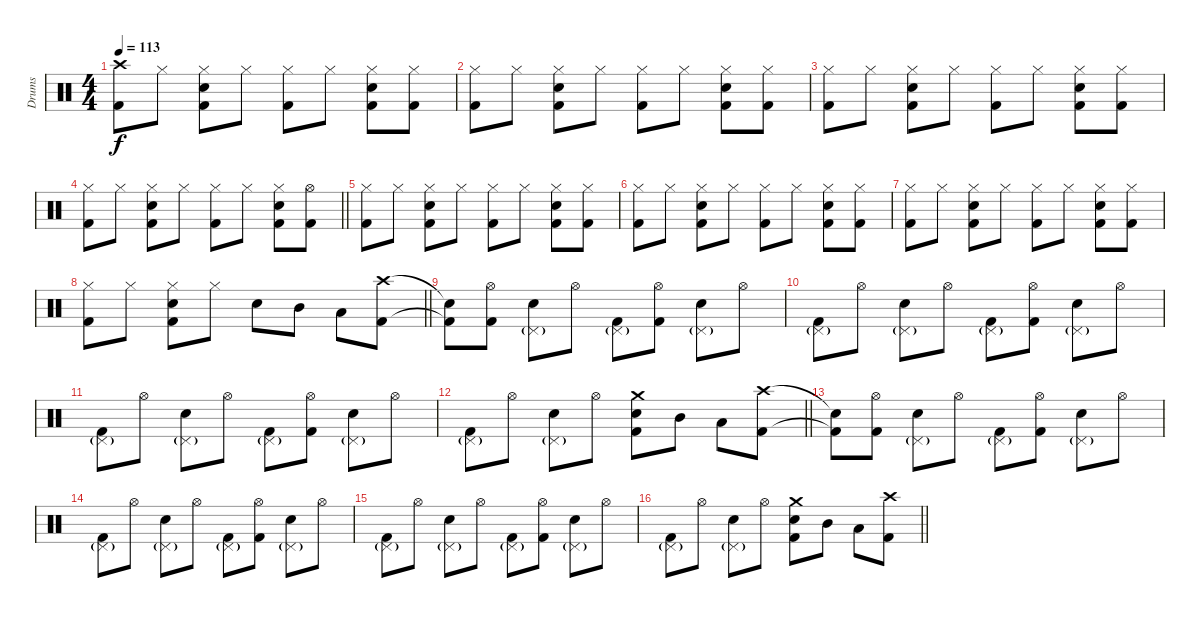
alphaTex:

\track ("Drums" "Drums") {instrument percussion}
\staff {score}
\articulation defaults
\ts (4 4)
\section ("" "")
\tempo 113
\clef neutral
\ks c
("Crash high (hit)" "Kick (hit) 2").8{dy f} "Hi-Hat (closed)".8 ("Hi-Hat (closed)" "Electric Snare (hit)" "Kick (hit) 2").8 "Hi-Hat (closed)".8 ("Hi-Hat (closed)" "Kick (hit) 2").8 "Hi-Hat (closed)".8 ("Hi-Hat (closed)" "Electric Snare (hit)" "Kick (hit) 2").8 ("Hi-Hat (closed)" "Kick (hit) 2").8 |
("Hi-Hat (closed)" "Kick (hit) 2").8 "Hi-Hat (closed)".8 ("Hi-Hat (closed)" "Electric Snare (hit)" "Kick (hit) 2").8 "Hi-Hat (closed)".8 ("Hi-Hat (closed)" "Kick (hit) 2").8 "Hi-Hat (closed)".8 ("Hi-Hat (closed)" "Electric Snare (hit)" "Kick (hit) 2").8 ("Hi-Hat (closed)" "Kick (hit) 2").8 |
("Hi-Hat (closed)" "Kick (hit) 2").8 "Hi-Hat (closed)".8 ("Hi-Hat (closed)" "Electric Snare (hit)" "Kick (hit) 2").8 "Hi-Hat (closed)".8 ("Hi-Hat (closed)" "Kick (hit) 2").8 "Hi-Hat (closed)".8 ("Hi-Hat (closed)" "Electric Snare (hit)" "Kick (hit) 2").8 ("Hi-Hat (closed)" "Kick (hit) 2").8 |
\barLineRight lightlight
("Hi-Hat (closed)" "Kick (hit) 2").8 "Hi-Hat (closed)".8 ("Hi-Hat (closed)" "Electric Snare (hit)" "Kick (hit) 2").8 "Hi-Hat (closed)".8 ("Hi-Hat (closed)" "Kick (hit) 2").8 "Hi-Hat (closed)".8 ("Hi-Hat (closed)" "Electric Snare (hit)" "Kick (hit) 2").8 ("Hi-Hat (open)" "Kick (hit) 2").8 |
\section ("" "")
("Hi-Hat (closed)" "Kick (hit) 2").8 "Hi-Hat (closed)".8 ("Hi-Hat (closed)" "Electric Snare (hit)" "Kick (hit) 2").8 "Hi-Hat (closed)".8 ("Hi-Hat (closed)" "Kick (hit) 2").8 "Hi-Hat (closed)".8 ("Hi-Hat (closed)" "Electric Snare (hit)" "Kick (hit) 2").8 ("Hi-Hat (closed)" "Kick (hit) 2").8 |
("Hi-Hat (closed)" "Kick (hit) 2").8 "Hi-Hat (closed)".8 ("Hi-Hat (closed)" "Electric Snare (hit)" "Kick (hit) 2").8 "Hi-Hat (closed)".8 ("Hi-Hat (closed)" "Kick (hit) 2").8 "Hi-Hat (closed)".8 ("Hi-Hat (closed)" "Electric Snare (hit)" "Kick (hit) 2").8 ("Hi-Hat (closed)" "Kick (hit) 2").8 |
("Hi-Hat (closed)" "Kick (hit) 2").8 "Hi-Hat (closed)".8 ("Hi-Hat (closed)" "Electric Snare (hit)" "Kick (hit) 2").8 "Hi-Hat (closed)".8 ("Hi-Hat (closed)" "Kick (hit) 2").8 "Hi-Hat (closed)".8 ("Hi-Hat (closed)" "Electric Snare (hit)" "Kick (hit) 2").8 ("Hi-Hat (closed)" "Kick (hit) 2").8 |
\barLineRight lightlight
("Hi-Hat (closed)" "Kick (hit) 2").8 "Hi-Hat (closed)".8 ("Hi-Hat (closed)" "Electric Snare (hit)" "Kick (hit) 2").8 "Hi-Hat (closed)".8 "Electric Snare (hit)".8 "Mid Tom (hit)".8 "Low Tom (hit)".8 ("Crash high (hit)" "Kick (hit) 2").8 |
\section ("" "")
("Snare (hit)"{t} "Kick (hit) 2"{t}).8 ("Hi-Hat (open)" "Kick (hit) 2").8 ("Electric Snare (hit)" "Pedal Hi-Hat (hit)"{g}).8 "Hi-Hat (open)".8 ("Kick (hit) 2" "Pedal Hi-Hat (hit)"{g}).8 ("Hi-Hat (open)" "Kick (hit) 2").8 ("Electric Snare (hit)" "Pedal Hi-Hat (hit)"{g}).8 "Hi-Hat (open)".8 |
("Kick (hit) 2" "Pedal Hi-Hat (hit)"{g}).8 "Hi-Hat (open)".8 ("Electric Snare (hit)" "Pedal Hi-Hat (hit)"{g}).8 "Hi-Hat (open)".8 ("Kick (hit) 2" "Pedal Hi-Hat (hit)"{g}).8 ("Hi-Hat (open)" "Kick (hit) 2").8 ("Electric Snare (hit)" "Pedal Hi-Hat (hit)"{g}).8 "Hi-Hat (open)".8 |
("Kick (hit) 2" "Pedal Hi-Hat (hit)"{g}).8 "Hi-Hat (open)".8 ("Electric Snare (hit)" "Pedal Hi-Hat (hit)"{g}).8 "Hi-Hat (open)".8 ("Kick (hit) 2" "Pedal Hi-Hat (hit)"{g}).8 ("Hi-Hat (open)" "Kick (hit) 2").8 ("Electric Snare (hit)" "Pedal Hi-Hat (hit)"{g}).8 "Hi-Hat (open)".8 |
\barLineRight lightlight
("Kick (hit) 2" "Pedal Hi-Hat (hit)"{g}).8 "Hi-Hat (open)".8 ("Electric Snare (hit)" "Pedal Hi-Hat (hit)"{g}).8 "Hi-Hat (open)".8 ("Crash medium (hit)" "Electric Snare (hit)" "Kick (hit) 2").8 "Mid Tom (hit)".8 "Low Tom (hit)".8 ("Crash high (hit)" "Kick (hit) 2").8 |
\section ("" "")
("Snare (hit)"{t} "Kick (hit) 2"{t}).8 ("Hi-Hat (open)" "Kick (hit) 2").8 ("Electric Snare (hit)" "Pedal Hi-Hat (hit)"{g}).8 "Hi-Hat (open)".8 ("Kick (hit) 2" "Pedal Hi-Hat (hit)"{g}).8 ("Hi-Hat (open)" "Kick (hit) 2").8 ("Electric Snare (hit)" "Pedal Hi-Hat (hit)"{g}).8 "Hi-Hat (open)".8 |
("Kick (hit) 2" "Pedal Hi-Hat (hit)"{g}).8 "Hi-Hat (open)".8 ("Electric Snare (hit)" "Pedal Hi-Hat (hit)"{g}).8 "Hi-Hat (open)".8 ("Kick (hit) 2" "Pedal Hi-Hat (hit)"{g}).8 ("Hi-Hat (open)" "Kick (hit) 2").8 ("Electric Snare (hit)" "Pedal Hi-Hat (hit)"{g}).8 "Hi-Hat (open)".8 |
("Kick (hit) 2" "Pedal Hi-Hat (hit)"{g}).8 "Hi-Hat (open)".8 ("Electric Snare (hit)" "Pedal Hi-Hat (hit)"{g}).8 "Hi-Hat (open)".8 ("Kick (hit) 2" "Pedal Hi-Hat (hit)"{g}).8 ("Hi-Hat (open)" "Kick (hit) 2").8 ("Electric Snare (hit)" "Pedal Hi-Hat (hit)"{g}).8 "Hi-Hat (open)".8 |
\barLineRight lightlight
("Kick (hit) 2" "Pedal Hi-Hat (hit)"{g}).8 "Hi-Hat (open)".8 ("Electric Snare (hit)" "Pedal Hi-Hat (hit)"{g}).8 "Hi-Hat (open)".8 ("Crash medium (hit)" "Electric Snare (hit)" "Kick (hit) 2").8 "Mid Tom (hit)".8 "Low Tom (hit)".8 ("Crash high (hit)" "Kick (hit) 2").8
